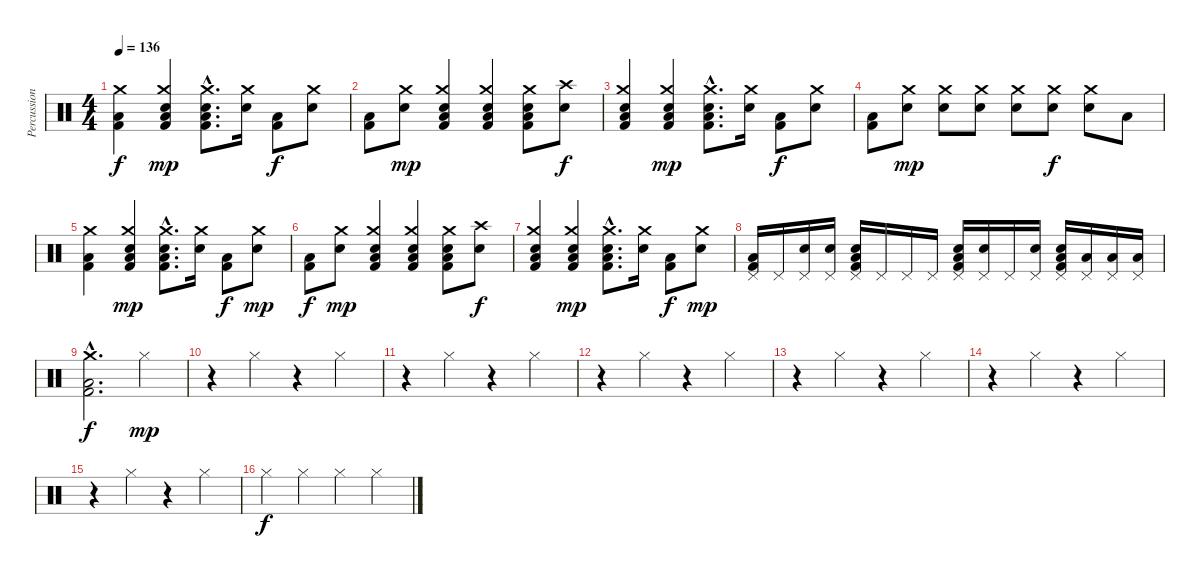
\track ("Percussions" "Percussion") {instrument percussion}
\staff {score}
\articulation defaults
\ts (4 4)
\tempo 136
\clef neutral
\ks c
("Kick (hit) 2" "Low Floor Tom (hit)" "Crash medium (hit)").4{dy f} ("Kick (hit) 2" "Low Floor Tom (hit)" "Snare (hit) 2" "Crash medium (hit)").4{dy mp} ("Kick (hit) 2"{hac} "Low Floor Tom (hit)"{hac} "Snare (hit) 2"{hac} "Crash medium (hit)"{hac}).8{d} ("Snare (hit) 2" "Crash medium (hit)").16 ("Kick (hit) 2" "Low Floor Tom (hit)").8{dy f} ("Snare (hit) 2" "Crash medium (hit)").8 |
("Kick (hit) 2" "Low Floor Tom (hit)").8 ("Snare (hit) 2" "Crash medium (hit)").8{dy mp} ("Kick (hit) 2" "Low Floor Tom (hit)" "Snare (hit) 2" "Crash medium (hit)").4 ("Kick (hit) 2" "Low Floor Tom (hit)" "Snare (hit) 2" "Crash medium (hit)").4 ("Kick (hit) 2" "Low Floor Tom (hit)" "Snare (hit) 2" "Crash medium (hit)").8 ("Snare (hit) 2" "Crash high (hit)").8{dy f} |
("Kick (hit) 2" "Low Floor Tom (hit)" "Snare (hit) 2" "Crash medium (hit)").4 ("Kick (hit) 2" "Low Floor Tom (hit)" "Snare (hit) 2" "Crash medium (hit)").4{dy mp} ("Kick (hit) 2"{hac} "Low Floor Tom (hit)"{hac} "Snare (hit) 2"{hac} "Crash medium (hit)"{hac}).8{d} ("Snare (hit) 2" "Crash medium (hit)").16 ("Kick (hit) 2" "Low Floor Tom (hit)").8{dy f} ("Snare (hit) 2" "Crash medium (hit)").8 |
("Kick (hit) 2" "Low Floor Tom (hit)").8 ("Snare (hit) 2" "Crash medium (hit)").8{dy mp} ("Snare (hit) 2" "Crash medium (hit)").8 ("Snare (hit) 2" "Crash medium (hit)").8 ("Snare (hit) 2" "Crash medium (hit)").8 ("Snare (hit) 2" "Crash medium (hit)").8{dy f} ("Snare (hit) 2" "Crash medium (hit)").8 "Low Tom (hit)".8 |
("Kick (hit) 2" "Low Floor Tom (hit)" "Crash medium (hit)").4 ("Kick (hit) 2" "Low Floor Tom (hit)" "Snare (hit) 2" "Crash medium (hit)").4{dy mp} ("Kick (hit) 2"{hac} "Low Floor Tom (hit)"{hac} "Snare (hit) 2"{hac} "Crash medium (hit)"{hac}).8{d} ("Snare (hit) 2" "Crash medium (hit)").16 ("Kick (hit) 2" "Low Floor Tom (hit)").8{dy f} ("Snare (hit) 2" "Crash medium (hit)").8{dy mp} |
("Kick (hit) 2" "Low Floor Tom (hit)").8{dy f} ("Snare (hit) 2" "Crash medium (hit)").8{dy mp} ("Kick (hit) 2" "Low Floor Tom (hit)" "Snare (hit) 2" "Crash medium (hit)").4 ("Kick (hit) 2" "Low Floor Tom (hit)" "Snare (hit) 2" "Crash medium (hit)").4 ("Kick (hit) 2" "Low Floor Tom (hit)" "Snare (hit) 2" "Crash medium (hit)").8 ("Snare (hit) 2" "Crash high (hit)").8{dy f} |
("Kick (hit) 2" "Low Floor Tom (hit)" "Snare (hit) 2" "Crash medium (hit)").4 ("Kick (hit) 2" "Low Floor Tom (hit)" "Snare (hit) 2" "Crash medium (hit)").4{dy mp} ("Kick (hit) 2"{hac} "Low Floor Tom (hit)"{hac} "Snare (hit) 2"{hac} "Crash medium (hit)"{hac}).8{d} ("Snare (hit) 2" "Crash medium (hit)").16 ("Kick (hit) 2" "Low Floor Tom (hit)").8{dy f} ("Snare (hit) 2" "Crash medium (hit)").8{dy mp} |
("Kick (hit) 2" "Low Floor Tom (hit)" "Pedal Hi-Hat (hit)").16 "Pedal Hi-Hat (hit)".16 ("Snare (hit) 2" "Pedal Hi-Hat (hit)").16 ("Snare (hit) 2" "Pedal Hi-Hat (hit)").16 ("Kick (hit) 2" "Low Floor Tom (hit)" "Snare (hit) 2" "Pedal Hi-Hat (hit)").16 "Pedal Hi-Hat (hit)".16 "Pedal Hi-Hat (hit)".16 "Pedal Hi-Hat (hit)".16 ("Kick (hit) 2" "Low Floor Tom (hit)" "Snare (hit) 2" "Pedal Hi-Hat (hit)").16 ("Snare (hit) 2" "Pedal Hi-Hat (hit)").16 "Pedal Hi-Hat (hit)".16 ("Snare (hit) 2" "Pedal Hi-Hat (hit)").16 ("Kick (hit) 2" "Low Floor Tom (hit)" "Snare (hit) 2" "Pedal Hi-Hat (hit)").16 ("Low Tom (hit)" "Pedal Hi-Hat (hit)").16 ("Low Tom (hit)" "Pedal Hi-Hat (hit)").16 ("Low Tom (hit)" "Pedal Hi-Hat (hit)").16 |
("Kick (hit) 2"{hac} "Low Floor Tom (hit)"{hac} "Crash medium (hit)"{hac}).2{d dy f} "Hi-Hat (closed)".4{dy mp} |
r.4 "Hi-Hat (closed)".4 r.4 "Hi-Hat (closed)".4 |
r.4 "Hi-Hat (closed)".4 r.4 "Hi-Hat (closed)".4 |
r.4 "Hi-Hat (closed)".4 r.4 "Hi-Hat (closed)".4 |
r.4 "Hi-Hat (closed)".4 r.4 "Hi-Hat (closed)".4 |
r.4 "Hi-Hat (closed)".4 r.4 "Hi-Hat (closed)".4 |
r.4 "Hi-Hat (closed)".4 r.4 "Hi-Hat (closed)".4 |
"Hi-Hat (closed)".4{dy f} "Hi-Hat (closed)".4 "Hi-Hat (closed)".4 "Hi-Hat (closed)".4
